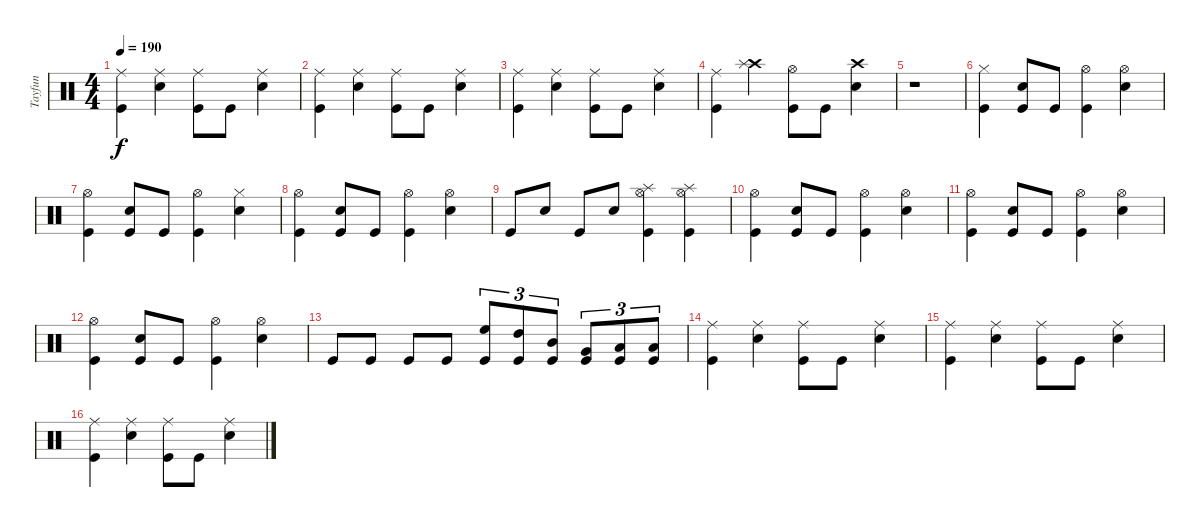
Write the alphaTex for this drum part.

\track ("Tayfun" "Tayfun") {instrument percussion}
\staff {score}
\articulation defaults
\ts (4 4)
\tempo 190
\clef neutral
\ks c
("Ride (middle)" "Kick (hit)").4{dy f} ("Ride (middle)" "Snare (hit) 2").4 ("Ride (middle)" "Kick (hit)").8 "Kick (hit)".8 ("Ride (middle)" "Snare (hit) 2").4 |
("Ride (middle)" "Kick (hit)").4 ("Ride (middle)" "Snare (hit) 2").4 ("Ride (middle)" "Kick (hit)").8 "Kick (hit)".8 ("Ride (middle)" "Snare (hit) 2").4 |
("Ride (middle)" "Kick (hit)").4 ("Ride (middle)" "Snare (hit) 2").4 ("Ride (middle)" "Kick (hit)").8 "Kick (hit)".8 ("Ride (middle)" "Snare (hit) 2").4 |
("Ride (middle)" "Kick (hit)").4 ("Crash high (hit)" "Splash (hit)").4 ("Hi-Hat (open)" "Kick (hit)").8 "Kick (hit)".8 ("Crash high (hit)" "Snare (hit) 2").4 |
r.1 |
("Hi-Hat (closed)" "Kick (hit)").4 ("Snare (hit) 2" "Kick (hit)").8 "Kick (hit)".8 ("Hi-Hat (open)" "Kick (hit)").4 ("Hi-Hat (open)" "Snare (hit) 2").4 |
("Hi-Hat (open)" "Kick (hit)").4 ("Snare (hit) 2" "Kick (hit)").8 "Kick (hit)".8 ("Hi-Hat (open)" "Kick (hit)").4 ("Hi-Hat (closed)" "Snare (hit) 2").4 |
("Hi-Hat (open)" "Kick (hit)").4 ("Snare (hit) 2" "Kick (hit)").8 "Kick (hit)".8 ("Hi-Hat (open)" "Kick (hit)").4 ("Hi-Hat (open)" "Snare (hit) 2").4 |
"Kick (hit)".8 "Snare (hit) 2".8 "Kick (hit)".8 "Snare (hit) 2".8 ("Hi-Hat (open)" "Splash (hit)" "Kick (hit)").4 ("Hi-Hat (open)" "Splash (hit)" "Kick (hit)").4 |
("Hi-Hat (open)" "Kick (hit)").4 ("Snare (hit) 2" "Kick (hit)").8 "Kick (hit)".8 ("Hi-Hat (open)" "Kick (hit)").4 ("Hi-Hat (open)" "Snare (hit) 2").4 |
("Hi-Hat (open)" "Kick (hit)").4 ("Snare (hit) 2" "Kick (hit)").8 "Kick (hit)".8 ("Hi-Hat (open)" "Kick (hit)").4 ("Hi-Hat (open)" "Snare (hit) 2").4 |
("Hi-Hat (open)" "Kick (hit)").4 ("Snare (hit) 2" "Kick (hit)").8 "Kick (hit)".8 ("Hi-Hat (open)" "Kick (hit)").4 ("Hi-Hat (open)" "Snare (hit) 2").4 |
"Kick (hit)".8 "Kick (hit)".8 "Kick (hit)".8 "Kick (hit)".8 ("High Floor Tom (hit)" "Kick (hit)").8{tu (3 2)} ("High Tom (hit)" "Kick (hit)").8{tu (3 2)} ("Mid Tom (hit)" "Kick (hit)").8{tu (3 2)} ("Very Low Tom (hit)" "Kick (hit)").8{tu (3 2)} ("Low Tom (hit)" "Kick (hit)").8{tu (3 2)} ("Low Tom (hit)" "Kick (hit)").8{tu (3 2)} |
("Ride (middle)" "Kick (hit)").4 ("Ride (middle)" "Snare (hit) 2").4 ("Ride (middle)" "Kick (hit)").8 "Kick (hit)".8 ("Ride (middle)" "Snare (hit) 2").4 |
("Ride (middle)" "Kick (hit)").4 ("Ride (middle)" "Snare (hit) 2").4 ("Ride (middle)" "Kick (hit)").8 "Kick (hit)".8 ("Ride (middle)" "Snare (hit) 2").4 |
("Ride (middle)" "Kick (hit)").4 ("Ride (middle)" "Snare (hit) 2").4 ("Ride (middle)" "Kick (hit)").8 "Kick (hit)".8 ("Ride (middle)" "Snare (hit) 2").4
